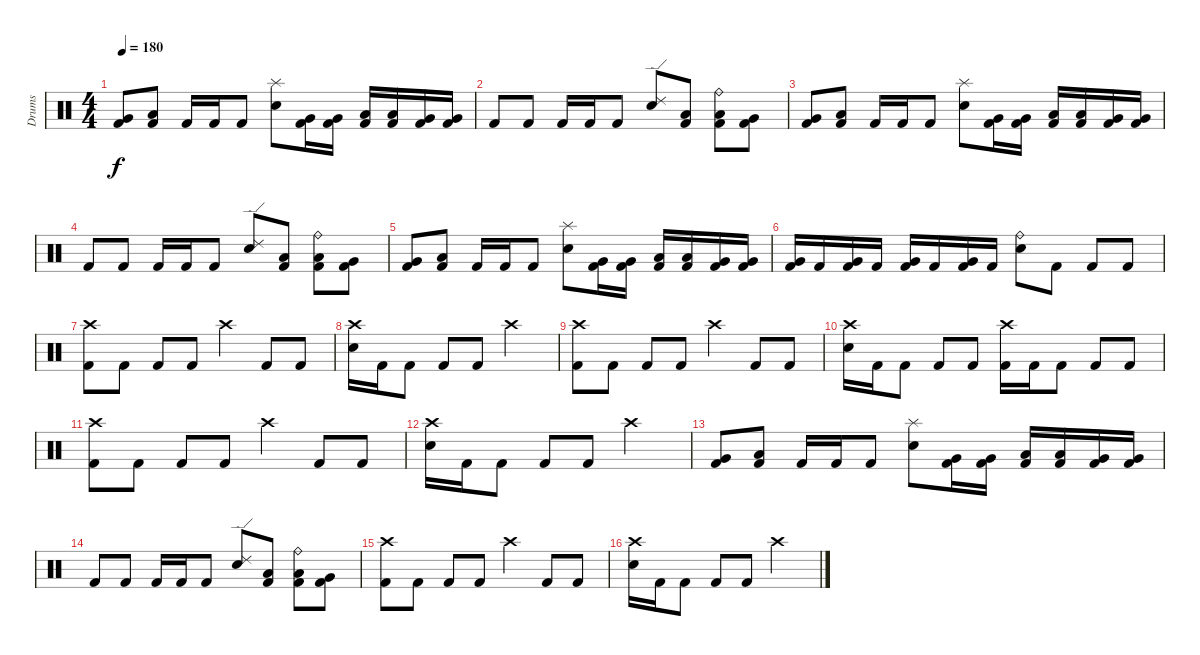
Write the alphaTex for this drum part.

\track ("Drums" "Drums") {instrument percussion}
\staff {score}
\articulation defaults
\ts (4 4)
\tempo 180
\clef neutral
\ks c
("Very Low Tom (hit)" "Kick (hit) 2").8{dy f} ("Low Tom (hit)" "Kick (hit) 2").8 "Kick (hit) 2".16 "Kick (hit) 2".16 "Kick (hit) 2".8 ("Splash (hit)" "Electric Snare (hit)").8 ("Very Low Tom (hit)" "Kick (hit) 2").16 ("Very Low Tom (hit)" "Kick (hit) 2").16 ("Low Floor Tom (hit)" "Kick (hit) 2").16 ("Low Floor Tom (hit)" "Kick (hit) 2").16 ("Very Low Tom (hit)" "Kick (hit) 2").16 ("Very Low Tom (hit)" "Kick (hit) 2").16 |
"Kick (hit) 2".8 "Kick (hit) 2".8 "Kick (hit) 2".16 "Kick (hit) 2".16 "Kick (hit) 2".8 ("Ride (edge) 2" "Electric Snare (hit)").8 ("Low Tom (hit)" "Kick (hit) 2").8 ("Ride (bell)" "Low Floor Tom (hit)" "Kick (hit) 2").8 ("Very Low Tom (hit)" "Kick (hit) 2").8 |
("Very Low Tom (hit)" "Kick (hit) 2").8 ("Low Tom (hit)" "Kick (hit) 2").8 "Kick (hit) 2".16 "Kick (hit) 2".16 "Kick (hit) 2".8 ("Splash (hit)" "Electric Snare (hit)").8 ("Very Low Tom (hit)" "Kick (hit) 2").16 ("Very Low Tom (hit)" "Kick (hit) 2").16 ("Low Floor Tom (hit)" "Kick (hit) 2").16 ("Low Floor Tom (hit)" "Kick (hit) 2").16 ("Very Low Tom (hit)" "Kick (hit) 2").16 ("Very Low Tom (hit)" "Kick (hit) 2").16 |
"Kick (hit) 2".8 "Kick (hit) 2".8 "Kick (hit) 2".16 "Kick (hit) 2".16 "Kick (hit) 2".8 ("Ride (edge) 2" "Electric Snare (hit)").8 ("Low Tom (hit)" "Kick (hit) 2").8 ("Ride (bell)" "Low Floor Tom (hit)" "Kick (hit) 2").8 ("Very Low Tom (hit)" "Kick (hit) 2").8 |
("Very Low Tom (hit)" "Kick (hit) 2").8 ("Low Tom (hit)" "Kick (hit) 2").8 "Kick (hit) 2".16 "Kick (hit) 2".16 "Kick (hit) 2".8 ("Splash (hit)" "Electric Snare (hit)").8 ("Very Low Tom (hit)" "Kick (hit) 2").16 ("Very Low Tom (hit)" "Kick (hit) 2").16 ("Low Floor Tom (hit)" "Kick (hit) 2").16 ("Low Floor Tom (hit)" "Kick (hit) 2").16 ("Very Low Tom (hit)" "Kick (hit) 2").16 ("Very Low Tom (hit)" "Kick (hit) 2").16 |
("Very Low Tom (hit)" "Kick (hit) 2").16 "Kick (hit) 2".16 ("Very Low Tom (hit)" "Kick (hit) 2").16 "Kick (hit) 2".16 ("Very Low Tom (hit)" "Kick (hit) 2").16 "Kick (hit) 2".16 ("Very Low Tom (hit)" "Kick (hit) 2").16 "Kick (hit) 2".16 ("Ride (bell)" "Electric Snare (hit)").8 "Kick (hit) 2".8 "Kick (hit) 2".8 "Kick (hit) 2".8 |
("Crash high (hit)" "Kick (hit) 2").8 "Kick (hit) 2".8 "Kick (hit) 2".8 "Kick (hit) 2".8 "Crash high (hit)".4 "Kick (hit) 2".8 "Kick (hit) 2".8 |
("Crash high (hit)" "Electric Snare (hit)").16 "Kick (hit) 2".16 "Kick (hit) 2".8 "Kick (hit) 2".8 "Kick (hit) 2".8 "Crash high (hit)".2 |
("Crash high (hit)" "Kick (hit) 2").8 "Kick (hit) 2".8 "Kick (hit) 2".8 "Kick (hit) 2".8 "Crash high (hit)".4 "Kick (hit) 2".8 "Kick (hit) 2".8 |
("Crash high (hit)" "Electric Snare (hit)").16 "Kick (hit) 2".16 "Kick (hit) 2".8 "Kick (hit) 2".8 "Kick (hit) 2".8 ("Crash high (hit)" "Kick (hit) 2").16 "Kick (hit) 2".16 "Kick (hit) 2".8 "Kick (hit) 2".8 "Kick (hit) 2".8 |
("Crash high (hit)" "Kick (hit) 2").8 "Kick (hit) 2".8 "Kick (hit) 2".8 "Kick (hit) 2".8 "Crash high (hit)".4 "Kick (hit) 2".8 "Kick (hit) 2".8 |
("Crash high (hit)" "Electric Snare (hit)").16 "Kick (hit) 2".16 "Kick (hit) 2".8 "Kick (hit) 2".8 "Kick (hit) 2".8 "Crash high (hit)".2 |
("Very Low Tom (hit)" "Kick (hit) 2").8 ("Low Tom (hit)" "Kick (hit) 2").8 "Kick (hit) 2".16 "Kick (hit) 2".16 "Kick (hit) 2".8 ("Splash (hit)" "Electric Snare (hit)").8 ("Very Low Tom (hit)" "Kick (hit) 2").16 ("Very Low Tom (hit)" "Kick (hit) 2").16 ("Low Floor Tom (hit)" "Kick (hit) 2").16 ("Low Floor Tom (hit)" "Kick (hit) 2").16 ("Very Low Tom (hit)" "Kick (hit) 2").16 ("Very Low Tom (hit)" "Kick (hit) 2").16 |
"Kick (hit) 2".8 "Kick (hit) 2".8 "Kick (hit) 2".16 "Kick (hit) 2".16 "Kick (hit) 2".8 ("Ride (edge) 2" "Electric Snare (hit)").8 ("Low Tom (hit)" "Kick (hit) 2").8 ("Ride (bell)" "Low Floor Tom (hit)" "Kick (hit) 2").8 ("Very Low Tom (hit)" "Kick (hit) 2").8 |
("Crash high (hit)" "Kick (hit) 2").8 "Kick (hit) 2".8 "Kick (hit) 2".8 "Kick (hit) 2".8 "Crash high (hit)".4 "Kick (hit) 2".8 "Kick (hit) 2".8 |
("Crash high (hit)" "Electric Snare (hit)").16 "Kick (hit) 2".16 "Kick (hit) 2".8 "Kick (hit) 2".8 "Kick (hit) 2".8 "Crash high (hit)".2
